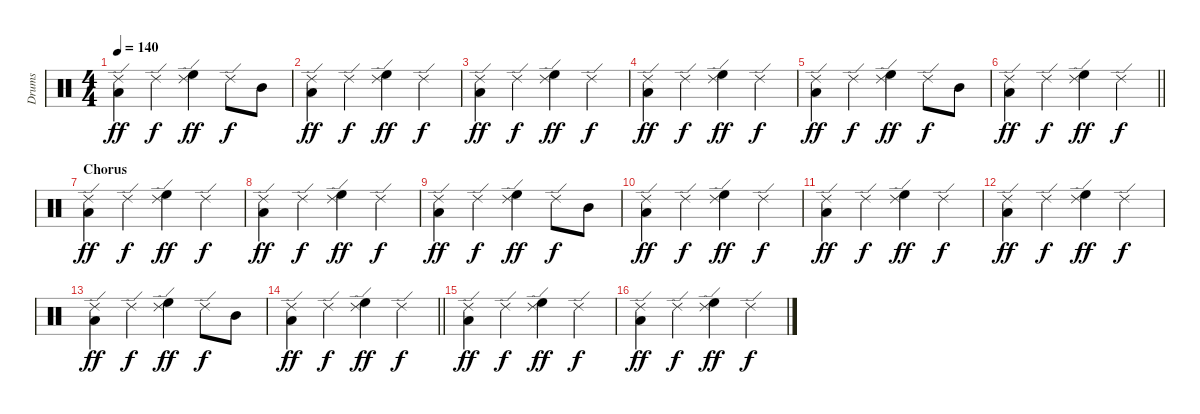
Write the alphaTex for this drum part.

\track ("Drums" "Drums") {instrument percussion}
\staff {score}
\articulation defaults
\ts (4 4)
\tempo 140
\clef neutral
\ks c
("Low Tom (hit)" "Ride (edge) 2").4{dy ff} "Ride (edge) 2".4{dy f} ("High Floor Tom (hit)" "Ride (edge) 2").4{dy ff} "Ride (edge) 2".8{dy f} "Mid Tom (hit)".8 |
("Low Tom (hit)" "Ride (edge) 2").4{dy ff} "Ride (edge) 2".4{dy f} ("High Floor Tom (hit)" "Ride (edge) 2").4{dy ff} "Ride (edge) 2".4{dy f} |
("Low Tom (hit)" "Ride (edge) 2").4{dy ff} "Ride (edge) 2".4{dy f} ("High Floor Tom (hit)" "Ride (edge) 2").4{dy ff} "Ride (edge) 2".4{dy f} |
("Low Tom (hit)" "Ride (edge) 2").4{dy ff} "Ride (edge) 2".4{dy f} ("High Floor Tom (hit)" "Ride (edge) 2").4{dy ff} "Ride (edge) 2".4{dy f} |
("Low Tom (hit)" "Ride (edge) 2").4{dy ff} "Ride (edge) 2".4{dy f} ("High Floor Tom (hit)" "Ride (edge) 2").4{dy ff} "Ride (edge) 2".8{dy f} "Mid Tom (hit)".8 |
\barLineRight lightlight
("Low Tom (hit)" "Ride (edge) 2").4{dy ff} "Ride (edge) 2".4{dy f} ("High Floor Tom (hit)" "Ride (edge) 2").4{dy ff} "Ride (edge) 2".4{dy f} |
\section ("" "Chorus")
("Low Tom (hit)" "Ride (edge) 2").4{dy ff} "Ride (edge) 2".4{dy f} ("High Floor Tom (hit)" "Ride (edge) 2").4{dy ff} "Ride (edge) 2".4{dy f} |
("Low Tom (hit)" "Ride (edge) 2").4{dy ff} "Ride (edge) 2".4{dy f} ("High Floor Tom (hit)" "Ride (edge) 2").4{dy ff} "Ride (edge) 2".4{dy f} |
("Low Tom (hit)" "Ride (edge) 2").4{dy ff} "Ride (edge) 2".4{dy f} ("High Floor Tom (hit)" "Ride (edge) 2").4{dy ff} "Ride (edge) 2".8{dy f} "Mid Tom (hit)".8 |
("Low Tom (hit)" "Ride (edge) 2").4{dy ff} "Ride (edge) 2".4{dy f} ("High Floor Tom (hit)" "Ride (edge) 2").4{dy ff} "Ride (edge) 2".4{dy f} |
("Low Tom (hit)" "Ride (edge) 2").4{dy ff} "Ride (edge) 2".4{dy f} ("High Floor Tom (hit)" "Ride (edge) 2").4{dy ff} "Ride (edge) 2".4{dy f} |
("Low Tom (hit)" "Ride (edge) 2").4{dy ff} "Ride (edge) 2".4{dy f} ("High Floor Tom (hit)" "Ride (edge) 2").4{dy ff} "Ride (edge) 2".4{dy f} |
("Low Tom (hit)" "Ride (edge) 2").4{dy ff} "Ride (edge) 2".4{dy f} ("High Floor Tom (hit)" "Ride (edge) 2").4{dy ff} "Ride (edge) 2".8{dy f} "Mid Tom (hit)".8 |
\barLineRight lightlight
("Low Tom (hit)" "Ride (edge) 2").4{dy ff} "Ride (edge) 2".4{dy f} ("High Floor Tom (hit)" "Ride (edge) 2").4{dy ff} "Ride (edge) 2".4{dy f} |
("Low Tom (hit)" "Ride (edge) 2").4{dy ff} "Ride (edge) 2".4{dy f} ("High Floor Tom (hit)" "Ride (edge) 2").4{dy ff} "Ride (edge) 2".4{dy f} |
("Low Tom (hit)" "Ride (edge) 2").4{dy ff} "Ride (edge) 2".4{dy f} ("High Floor Tom (hit)" "Ride (edge) 2").4{dy ff} "Ride (edge) 2".4{dy f}
